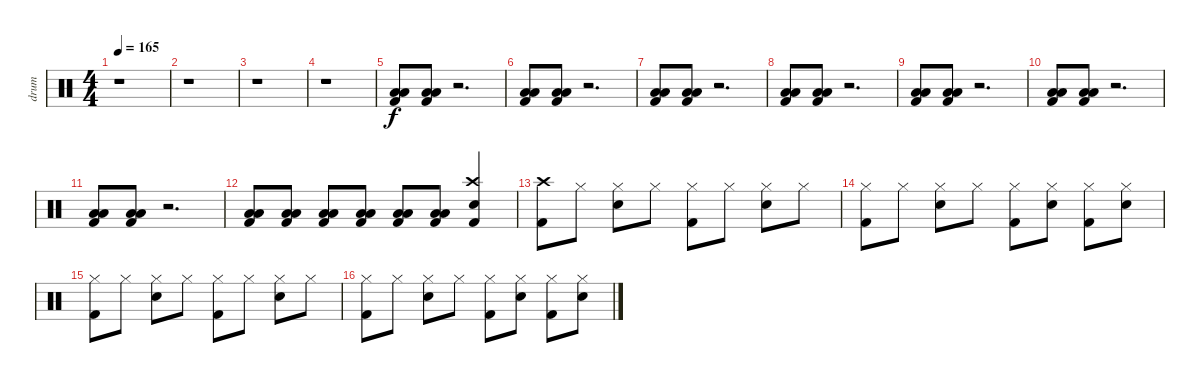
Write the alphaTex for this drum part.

\track ("drum" "drum") {instrument percussion}
\staff {score}
\articulation defaults
\ts (4 4)
\tempo 165
\clef neutral
\ks c
r.1{dy f} |
r.1 |
r.1 |
r.1 |
("Low Floor Tom (hit)" "Low Floor Tom (hit)" "Kick (hit) 2").8 ("Low Floor Tom (hit)" "Low Floor Tom (hit)" "Kick (hit) 2").8 r.2{d} |
("Low Floor Tom (hit)" "Low Floor Tom (hit)" "Kick (hit) 2").8 ("Low Floor Tom (hit)" "Low Floor Tom (hit)" "Kick (hit) 2").8 r.2{d} |
("Low Floor Tom (hit)" "Low Floor Tom (hit)" "Kick (hit) 2").8 ("Low Floor Tom (hit)" "Low Floor Tom (hit)" "Kick (hit) 2").8 r.2{d} |
("Low Floor Tom (hit)" "Low Floor Tom (hit)" "Kick (hit) 2").8 ("Low Floor Tom (hit)" "Low Floor Tom (hit)" "Kick (hit) 2").8 r.2{d} |
("Low Floor Tom (hit)" "Low Floor Tom (hit)" "Kick (hit) 2").8 ("Low Floor Tom (hit)" "Low Floor Tom (hit)" "Kick (hit) 2").8 r.2{d} |
("Low Floor Tom (hit)" "Low Floor Tom (hit)" "Kick (hit) 2").8 ("Low Floor Tom (hit)" "Low Floor Tom (hit)" "Kick (hit) 2").8 r.2{d} |
("Low Floor Tom (hit)" "Low Floor Tom (hit)" "Kick (hit) 2").8 ("Low Floor Tom (hit)" "Low Floor Tom (hit)" "Kick (hit) 2").8 r.2{d} |
("Low Floor Tom (hit)" "Low Floor Tom (hit)" "Kick (hit) 2").8 ("Low Floor Tom (hit)" "Low Floor Tom (hit)" "Kick (hit) 2").8 ("Low Floor Tom (hit)" "Low Floor Tom (hit)" "Kick (hit) 2").8 ("Low Floor Tom (hit)" "Low Floor Tom (hit)" "Kick (hit) 2").8 ("Low Floor Tom (hit)" "Low Floor Tom (hit)" "Kick (hit) 2").8 ("Low Floor Tom (hit)" "Low Floor Tom (hit)" "Kick (hit) 2").8 ("Crash high (hit)" "Snare (hit) 2" "Kick (hit) 2").4 |
("Crash high (hit)" "Kick (hit) 2").8 "Hi-Hat (closed)".8 ("Hi-Hat (closed)" "Snare (hit) 2").8 "Hi-Hat (closed)".8 ("Hi-Hat (closed)" "Kick (hit) 2").8 "Hi-Hat (closed)".8 ("Hi-Hat (closed)" "Snare (hit) 2").8 "Hi-Hat (closed)".8 |
("Hi-Hat (closed)" "Kick (hit) 2").8 "Hi-Hat (closed)".8 ("Hi-Hat (closed)" "Snare (hit) 2").8 "Hi-Hat (closed)".8 ("Hi-Hat (closed)" "Kick (hit) 2").8 ("Hi-Hat (closed)" "Snare (hit) 2").8 ("Hi-Hat (closed)" "Kick (hit) 2").8 ("Hi-Hat (closed)" "Snare (hit) 2").8 |
("Hi-Hat (closed)" "Kick (hit) 2").8 "Hi-Hat (closed)".8 ("Hi-Hat (closed)" "Snare (hit) 2").8 "Hi-Hat (closed)".8 ("Hi-Hat (closed)" "Kick (hit) 2").8 "Hi-Hat (closed)".8 ("Hi-Hat (closed)" "Snare (hit) 2").8 "Hi-Hat (closed)".8 |
("Hi-Hat (closed)" "Kick (hit) 2").8 "Hi-Hat (closed)".8 ("Hi-Hat (closed)" "Snare (hit) 2").8 "Hi-Hat (closed)".8 ("Hi-Hat (closed)" "Kick (hit) 2").8 ("Hi-Hat (closed)" "Snare (hit) 2").8 ("Hi-Hat (closed)" "Kick (hit) 2").8 ("Hi-Hat (closed)" "Snare (hit) 2").8
